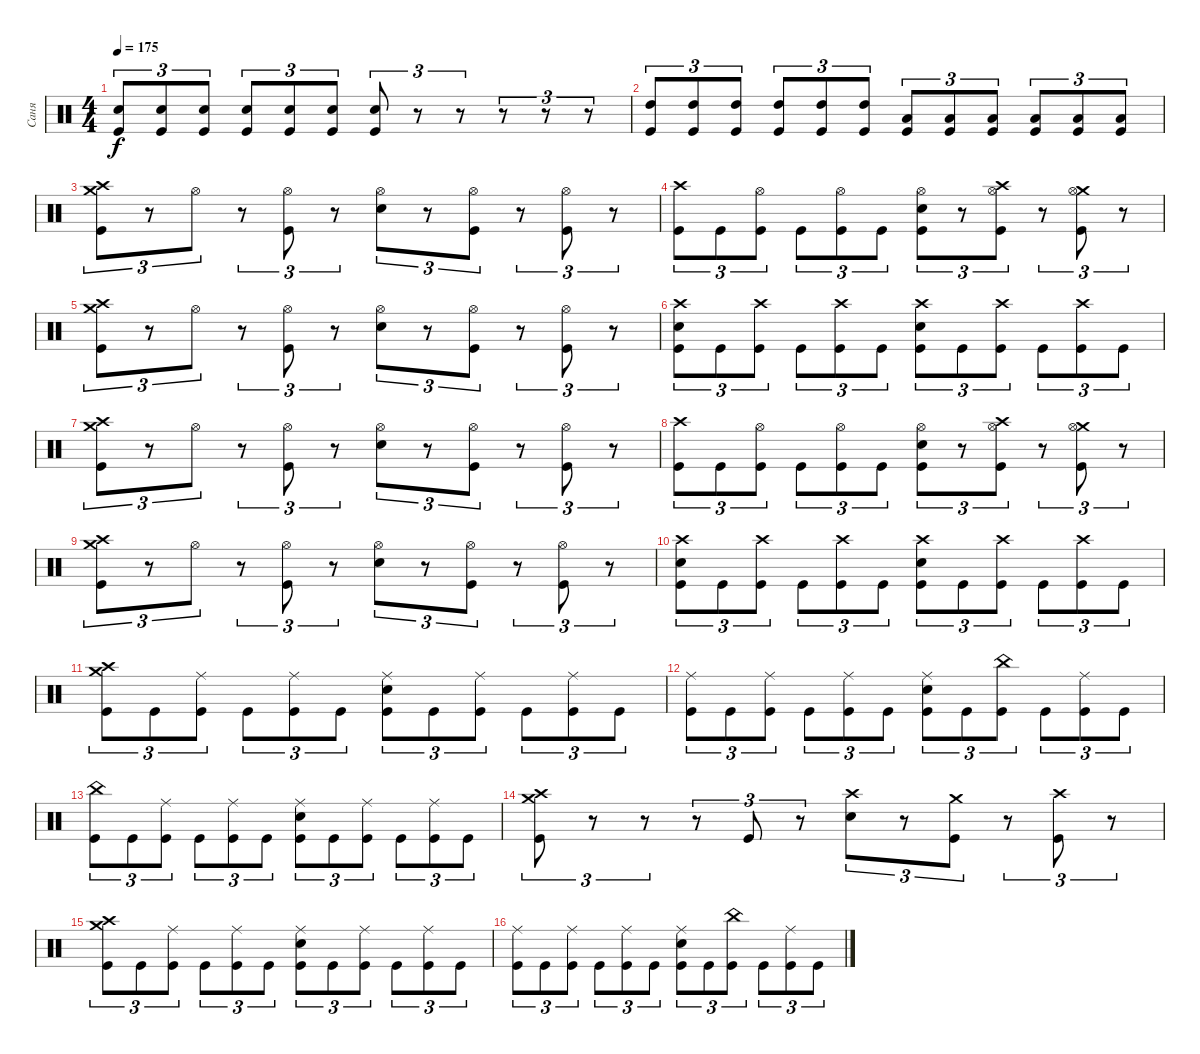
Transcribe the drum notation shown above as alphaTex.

\track ("Саня" "Саня") {instrument percussion}
\staff {score}
\articulation defaults
\ts (4 4)
\tempo 175
\clef neutral
\ks c
("Electric Snare (hit)" "Kick (hit)").8{tu (3 2) dy f} ("Electric Snare (hit)" "Kick (hit)").8{tu (3 2)} ("Electric Snare (hit)" "Kick (hit)").8{tu (3 2)} ("Electric Snare (hit)" "Kick (hit)").8{tu (3 2)} ("Electric Snare (hit)" "Kick (hit)").8{tu (3 2)} ("Electric Snare (hit)" "Kick (hit)").8{tu (3 2)} ("Electric Snare (hit)" "Kick (hit)").8{tu (3 2)} r.8{tu (3 2)} r.8{tu (3 2)} r.8{tu (3 2)} r.8{tu (3 2)} r.8{tu (3 2)} |
("High Tom (hit)" "Kick (hit)").8{tu (3 2)} ("High Tom (hit)" "Kick (hit)").8{tu (3 2)} ("High Tom (hit)" "Kick (hit)").8{tu (3 2)} ("High Tom (hit)" "Kick (hit)").8{tu (3 2)} ("High Tom (hit)" "Kick (hit)").8{tu (3 2)} ("High Tom (hit)" "Kick (hit)").8{tu (3 2)} ("Low Tom (hit)" "Kick (hit)").8{tu (3 2)} ("Low Tom (hit)" "Kick (hit)").8{tu (3 2)} ("Low Tom (hit)" "Kick (hit)").8{tu (3 2)} ("Low Tom (hit)" "Kick (hit)").8{tu (3 2)} ("Low Tom (hit)" "Kick (hit)").8{tu (3 2)} ("Low Tom (hit)" "Kick (hit)").8{tu (3 2)} |
("Crash medium (hit)" "Crash high (hit)" "Kick (hit)").8{tu (3 2)} r.8{tu (3 2)} "Hi-Hat (open)".8{tu (3 2)} r.8{tu (3 2)} ("Hi-Hat (open)" "Kick (hit)").8{tu (3 2)} r.8{tu (3 2)} ("Electric Snare (hit)" "Hi-Hat (open)").8{tu (3 2)} r.8{tu (3 2)} ("Hi-Hat (open)" "Kick (hit)").8{tu (3 2)} r.8{tu (3 2)} ("Hi-Hat (open)" "Kick (hit)").8{tu (3 2)} r.8{tu (3 2)} |
("Crash high (hit)" "Kick (hit)").8{tu (3 2)} "Kick (hit)".8{tu (3 2)} ("Hi-Hat (open)" "Kick (hit)").8{tu (3 2)} "Kick (hit)".8{tu (3 2)} ("Hi-Hat (open)" "Kick (hit)").8{tu (3 2)} "Kick (hit)".8{tu (3 2)} ("Electric Snare (hit)" "Hi-Hat (open)" "Kick (hit)").8{tu (3 2)} r.8{tu (3 2)} ("Crash high (hit)" "Hi-Hat (open)" "Kick (hit)").8{tu (3 2)} r.8{tu (3 2)} ("Crash medium (hit)" "Hi-Hat (open)" "Kick (hit)").8{tu (3 2)} r.8{tu (3 2)} |
("Crash medium (hit)" "Crash high (hit)" "Kick (hit)").8{tu (3 2)} r.8{tu (3 2)} "Hi-Hat (open)".8{tu (3 2)} r.8{tu (3 2)} ("Hi-Hat (open)" "Kick (hit)").8{tu (3 2)} r.8{tu (3 2)} ("Electric Snare (hit)" "Hi-Hat (open)").8{tu (3 2)} r.8{tu (3 2)} ("Hi-Hat (open)" "Kick (hit)").8{tu (3 2)} r.8{tu (3 2)} ("Hi-Hat (open)" "Kick (hit)").8{tu (3 2)} r.8{tu (3 2)} |
("Crash high (hit)" "Electric Snare (hit)" "Kick (hit)").8{tu (3 2)} "Kick (hit)".8{tu (3 2)} ("Crash high (hit)" "Kick (hit)").8{tu (3 2)} "Kick (hit)".8{tu (3 2)} ("Crash high (hit)" "Kick (hit)").8{tu (3 2)} "Kick (hit)".8{tu (3 2)} ("Crash high (hit)" "Electric Snare (hit)" "Kick (hit)").8{tu (3 2)} "Kick (hit)".8{tu (3 2)} ("Crash high (hit)" "Kick (hit)").8{tu (3 2)} "Kick (hit)".8{tu (3 2)} ("Crash high (hit)" "Kick (hit)").8{tu (3 2)} "Kick (hit)".8{tu (3 2)} |
("Crash medium (hit)" "Crash high (hit)" "Kick (hit)").8{tu (3 2)} r.8{tu (3 2)} "Hi-Hat (open)".8{tu (3 2)} r.8{tu (3 2)} ("Hi-Hat (open)" "Kick (hit)").8{tu (3 2)} r.8{tu (3 2)} ("Electric Snare (hit)" "Hi-Hat (open)").8{tu (3 2)} r.8{tu (3 2)} ("Hi-Hat (open)" "Kick (hit)").8{tu (3 2)} r.8{tu (3 2)} ("Hi-Hat (open)" "Kick (hit)").8{tu (3 2)} r.8{tu (3 2)} |
("Crash high (hit)" "Kick (hit)").8{tu (3 2)} "Kick (hit)".8{tu (3 2)} ("Hi-Hat (open)" "Kick (hit)").8{tu (3 2)} "Kick (hit)".8{tu (3 2)} ("Hi-Hat (open)" "Kick (hit)").8{tu (3 2)} "Kick (hit)".8{tu (3 2)} ("Electric Snare (hit)" "Hi-Hat (open)" "Kick (hit)").8{tu (3 2)} r.8{tu (3 2)} ("Crash high (hit)" "Hi-Hat (open)" "Kick (hit)").8{tu (3 2)} r.8{tu (3 2)} ("Crash medium (hit)" "Hi-Hat (open)" "Kick (hit)").8{tu (3 2)} r.8{tu (3 2)} |
("Crash medium (hit)" "Crash high (hit)" "Kick (hit)").8{tu (3 2)} r.8{tu (3 2)} "Hi-Hat (open)".8{tu (3 2)} r.8{tu (3 2)} ("Hi-Hat (open)" "Kick (hit)").8{tu (3 2)} r.8{tu (3 2)} ("Electric Snare (hit)" "Hi-Hat (open)").8{tu (3 2)} r.8{tu (3 2)} ("Hi-Hat (open)" "Kick (hit)").8{tu (3 2)} r.8{tu (3 2)} ("Hi-Hat (open)" "Kick (hit)").8{tu (3 2)} r.8{tu (3 2)} |
("Crash high (hit)" "Electric Snare (hit)" "Kick (hit)").8{tu (3 2)} "Kick (hit)".8{tu (3 2)} ("Crash high (hit)" "Kick (hit)").8{tu (3 2)} "Kick (hit)".8{tu (3 2)} ("Crash high (hit)" "Kick (hit)").8{tu (3 2)} "Kick (hit)".8{tu (3 2)} ("Crash high (hit)" "Electric Snare (hit)" "Kick (hit)").8{tu (3 2)} "Kick (hit)".8{tu (3 2)} ("Crash high (hit)" "Kick (hit)").8{tu (3 2)} "Kick (hit)".8{tu (3 2)} ("Crash high (hit)" "Kick (hit)").8{tu (3 2)} "Kick (hit)".8{tu (3 2)} |
("Crash medium (hit)" "Crash high (hit)" "Kick (hit)").8{tu (3 2)} "Kick (hit)".8{tu (3 2)} ("Ride (middle)" "Kick (hit)").8{tu (3 2)} "Kick (hit)".8{tu (3 2)} ("Ride (middle)" "Kick (hit)").8{tu (3 2)} "Kick (hit)".8{tu (3 2)} ("Ride (middle)" "Electric Snare (hit)" "Kick (hit)").8{tu (3 2)} "Kick (hit)".8{tu (3 2)} ("Ride (middle)" "Kick (hit)").8{tu (3 2)} "Kick (hit)".8{tu (3 2)} ("Ride (middle)" "Kick (hit)").8{tu (3 2)} "Kick (hit)".8{tu (3 2)} |
("Ride (middle)" "Kick (hit)").8{tu (3 2)} "Kick (hit)".8{tu (3 2)} ("Ride (middle)" "Kick (hit)").8{tu (3 2)} "Kick (hit)".8{tu (3 2)} ("Ride (middle)" "Kick (hit)").8{tu (3 2)} "Kick (hit)".8{tu (3 2)} ("Ride (middle)" "Electric Snare (hit)" "Kick (hit)").8{tu (3 2)} "Kick (hit)".8{tu (3 2)} ("China (hit)" "Kick (hit)").8{tu (3 2)} "Kick (hit)".8{tu (3 2)} ("Ride (middle)" "Kick (hit)").8{tu (3 2)} "Kick (hit)".8{tu (3 2)} |
("China (hit)" "Kick (hit)").8{tu (3 2)} "Kick (hit)".8{tu (3 2)} ("Ride (middle)" "Kick (hit)").8{tu (3 2)} "Kick (hit)".8{tu (3 2)} ("Ride (middle)" "Kick (hit)").8{tu (3 2)} "Kick (hit)".8{tu (3 2)} ("Ride (middle)" "Electric Snare (hit)" "Kick (hit)").8{tu (3 2)} "Kick (hit)".8{tu (3 2)} ("Ride (middle)" "Kick (hit)").8{tu (3 2)} "Kick (hit)".8{tu (3 2)} ("Ride (middle)" "Kick (hit)").8{tu (3 2)} "Kick (hit)".8{tu (3 2)} |
("Crash medium (hit)" "Crash high (hit)" "Kick (hit)").8{tu (3 2)} r.8{tu (3 2)} r.8{tu (3 2)} r.8{tu (3 2)} "Kick (hit)".8{tu (3 2)} r.8{tu (3 2)} ("Crash high (hit)" "Electric Snare (hit)").8{tu (3 2)} r.8{tu (3 2)} ("Crash medium (hit)" "Kick (hit)").8{tu (3 2)} r.8{tu (3 2)} ("Crash high (hit)" "Kick (hit)").8{tu (3 2)} r.8{tu (3 2)} |
("Crash medium (hit)" "Crash high (hit)" "Kick (hit)").8{tu (3 2)} "Kick (hit)".8{tu (3 2)} ("Ride (middle)" "Kick (hit)").8{tu (3 2)} "Kick (hit)".8{tu (3 2)} ("Ride (middle)" "Kick (hit)").8{tu (3 2)} "Kick (hit)".8{tu (3 2)} ("Ride (middle)" "Electric Snare (hit)" "Kick (hit)").8{tu (3 2)} "Kick (hit)".8{tu (3 2)} ("Ride (middle)" "Kick (hit)").8{tu (3 2)} "Kick (hit)".8{tu (3 2)} ("Ride (middle)" "Kick (hit)").8{tu (3 2)} "Kick (hit)".8{tu (3 2)} |
("Ride (middle)" "Kick (hit)").8{tu (3 2)} "Kick (hit)".8{tu (3 2)} ("Ride (middle)" "Kick (hit)").8{tu (3 2)} "Kick (hit)".8{tu (3 2)} ("Ride (middle)" "Kick (hit)").8{tu (3 2)} "Kick (hit)".8{tu (3 2)} ("Ride (middle)" "Electric Snare (hit)" "Kick (hit)").8{tu (3 2)} "Kick (hit)".8{tu (3 2)} ("China (hit)" "Kick (hit)").8{tu (3 2)} "Kick (hit)".8{tu (3 2)} ("Ride (middle)" "Kick (hit)").8{tu (3 2)} "Kick (hit)".8{tu (3 2)}
